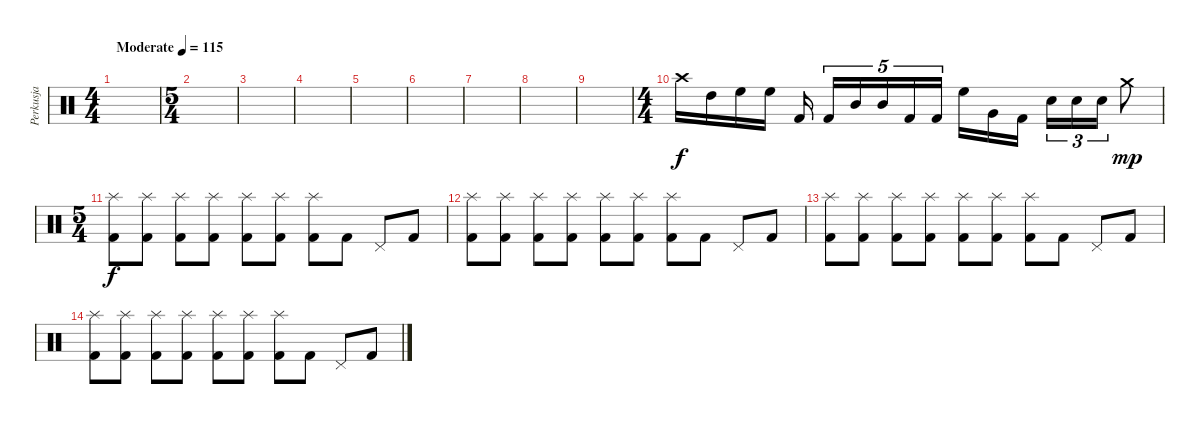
\track ("Perkusja" "Perkusja") {instrument percussion}
\staff {score}
\articulation defaults
\ts (4 4)
\tempo (115 "Moderate")
\clef neutral
\ks c
|
\ts (5 4)
|
|
|
|
|
|
|
|
\ts (4 4)
"Crash high (hit)".16 "High Tom (hit)".16{dy f} "High Floor Tom (hit)".16 "High Floor Tom (hit)".16 "Kick (hit) 2".16{beam splitsecondary} "Kick (hit) 2".16{tu (5 4)} "Mid Tom (hit)".16{tu (5 4)} "Mid Tom (hit)".16{tu (5 4)} "Kick (hit) 2".16{tu (5 4)} "Kick (hit) 2".16{tu (5 4) beam splitsecondary} "High Floor Tom (hit)".16 "Very Low Tom (hit)".16 "Kick (hit) 2".16 "Electric Snare (hit)".16{tu (3 2)} "Electric Snare (hit)".16{tu (3 2)} "Electric Snare (hit)".16{tu (3 2)} "Crash medium (hit)".8{dy mp} |
\ts (5 4)
("Splash (hit)" "Kick (hit) 2").8{dy f} ("Splash (hit)" "Kick (hit) 2").8 ("Splash (hit)" "Kick (hit) 2").8 ("Splash (hit)" "Kick (hit) 2").8 ("Splash (hit)" "Kick (hit) 2").8 ("Splash (hit)" "Kick (hit) 2").8 ("Splash (hit)" "Kick (hit) 2").8 "Kick (hit) 2".8 "Pedal Hi-Hat (hit)".8 "Kick (hit) 2".8 |
("Splash (hit)" "Kick (hit) 2").8 ("Splash (hit)" "Kick (hit) 2").8 ("Splash (hit)" "Kick (hit) 2").8 ("Splash (hit)" "Kick (hit) 2").8 ("Splash (hit)" "Kick (hit) 2").8 ("Splash (hit)" "Kick (hit) 2").8 ("Splash (hit)" "Kick (hit) 2").8 "Kick (hit) 2".8 "Pedal Hi-Hat (hit)".8 "Kick (hit) 2".8 |
("Splash (hit)" "Kick (hit) 2").8 ("Splash (hit)" "Kick (hit) 2").8 ("Splash (hit)" "Kick (hit) 2").8 ("Splash (hit)" "Kick (hit) 2").8 ("Splash (hit)" "Kick (hit) 2").8 ("Splash (hit)" "Kick (hit) 2").8 ("Splash (hit)" "Kick (hit) 2").8 "Kick (hit) 2".8 "Pedal Hi-Hat (hit)".8 "Kick (hit) 2".8 |
("Splash (hit)" "Kick (hit) 2").8 ("Splash (hit)" "Kick (hit) 2").8 ("Splash (hit)" "Kick (hit) 2").8 ("Splash (hit)" "Kick (hit) 2").8 ("Splash (hit)" "Kick (hit) 2").8 ("Splash (hit)" "Kick (hit) 2").8 ("Splash (hit)" "Kick (hit) 2").8 "Kick (hit) 2".8 "Pedal Hi-Hat (hit)".8 "Kick (hit) 2".8
